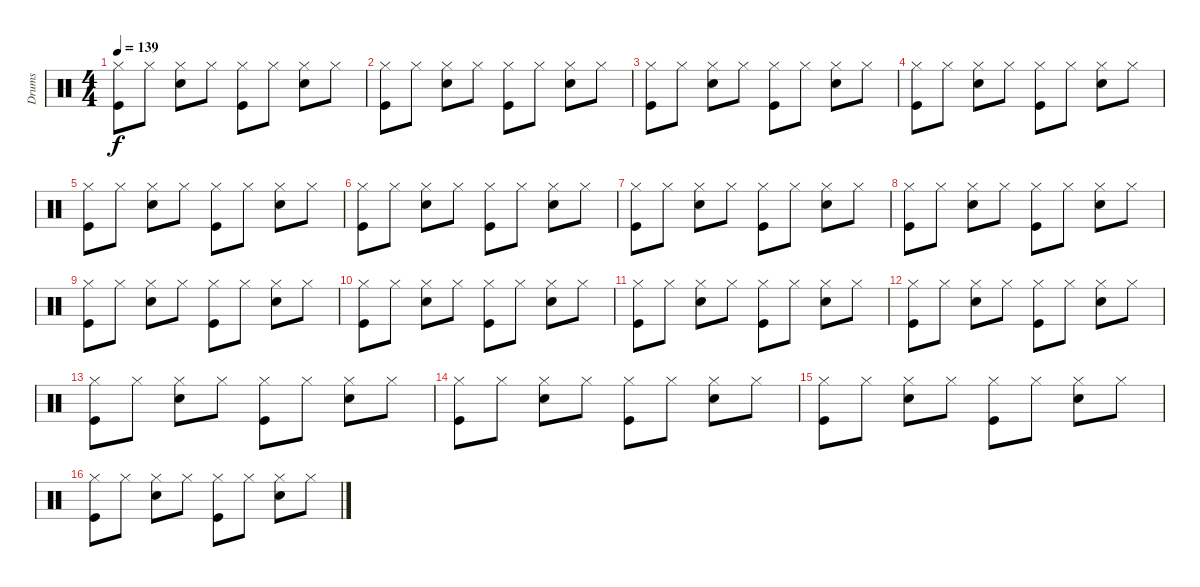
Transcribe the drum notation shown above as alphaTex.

\track ("Drums" "Drums") {instrument percussion}
\staff {score}
\articulation defaults
\ts (4 4)
\tempo 139
\clef neutral
\ks c
("Kick (hit)" "Hi-Hat (closed)").8{dy f} "Hi-Hat (closed)".8 ("Hi-Hat (closed)" "Snare (hit) 2").8 "Hi-Hat (closed)".8 ("Hi-Hat (closed)" "Kick (hit)").8 "Hi-Hat (closed)".8 ("Hi-Hat (closed)" "Snare (hit) 2").8 "Hi-Hat (closed)".8 |
("Kick (hit)" "Hi-Hat (closed)").8 "Hi-Hat (closed)".8 ("Hi-Hat (closed)" "Snare (hit) 2").8 "Hi-Hat (closed)".8 ("Hi-Hat (closed)" "Kick (hit)").8 "Hi-Hat (closed)".8 ("Hi-Hat (closed)" "Snare (hit) 2").8 "Hi-Hat (closed)".8 |
("Kick (hit)" "Hi-Hat (closed)").8 "Hi-Hat (closed)".8 ("Hi-Hat (closed)" "Snare (hit) 2").8 "Hi-Hat (closed)".8 ("Hi-Hat (closed)" "Kick (hit)").8 "Hi-Hat (closed)".8 ("Hi-Hat (closed)" "Snare (hit) 2").8 "Hi-Hat (closed)".8 |
("Kick (hit)" "Hi-Hat (closed)").8 "Hi-Hat (closed)".8 ("Hi-Hat (closed)" "Snare (hit) 2").8 "Hi-Hat (closed)".8 ("Hi-Hat (closed)" "Kick (hit)").8 "Hi-Hat (closed)".8 ("Hi-Hat (closed)" "Snare (hit) 2").8 "Hi-Hat (closed)".8 |
("Kick (hit)" "Hi-Hat (closed)").8 "Hi-Hat (closed)".8 ("Hi-Hat (closed)" "Snare (hit) 2").8 "Hi-Hat (closed)".8 ("Hi-Hat (closed)" "Kick (hit)").8 "Hi-Hat (closed)".8 ("Hi-Hat (closed)" "Snare (hit) 2").8 "Hi-Hat (closed)".8 |
("Hi-Hat (closed)" "Kick (hit)").8 "Hi-Hat (closed)".8 ("Hi-Hat (closed)" "Snare (hit) 2").8 "Hi-Hat (closed)".8 ("Hi-Hat (closed)" "Kick (hit)").8 "Hi-Hat (closed)".8 ("Hi-Hat (closed)" "Snare (hit) 2").8 "Hi-Hat (closed)".8 |
("Kick (hit)" "Hi-Hat (closed)").8 "Hi-Hat (closed)".8 ("Hi-Hat (closed)" "Snare (hit) 2").8 "Hi-Hat (closed)".8 ("Hi-Hat (closed)" "Kick (hit)").8 "Hi-Hat (closed)".8 ("Hi-Hat (closed)" "Snare (hit) 2").8 "Hi-Hat (closed)".8 |
("Kick (hit)" "Hi-Hat (closed)").8 "Hi-Hat (closed)".8 ("Hi-Hat (closed)" "Snare (hit) 2").8 "Hi-Hat (closed)".8 ("Hi-Hat (closed)" "Kick (hit)").8 "Hi-Hat (closed)".8 ("Hi-Hat (closed)" "Snare (hit) 2").8 "Hi-Hat (closed)".8 |
("Kick (hit)" "Hi-Hat (closed)").8 "Hi-Hat (closed)".8 ("Hi-Hat (closed)" "Snare (hit) 2").8 "Hi-Hat (closed)".8 ("Hi-Hat (closed)" "Kick (hit)").8 "Hi-Hat (closed)".8 ("Hi-Hat (closed)" "Snare (hit) 2").8 "Hi-Hat (closed)".8 |
("Kick (hit)" "Hi-Hat (closed)").8 "Hi-Hat (closed)".8 ("Hi-Hat (closed)" "Snare (hit) 2").8 "Hi-Hat (closed)".8 ("Hi-Hat (closed)" "Kick (hit)").8 "Hi-Hat (closed)".8 ("Hi-Hat (closed)" "Snare (hit) 2").8 "Hi-Hat (closed)".8 |
("Kick (hit)" "Hi-Hat (closed)").8 "Hi-Hat (closed)".8 ("Hi-Hat (closed)" "Snare (hit) 2").8 "Hi-Hat (closed)".8 ("Hi-Hat (closed)" "Kick (hit)").8 "Hi-Hat (closed)".8 ("Hi-Hat (closed)" "Snare (hit) 2").8 "Hi-Hat (closed)".8 |
("Kick (hit)" "Hi-Hat (closed)").8 "Hi-Hat (closed)".8 ("Hi-Hat (closed)" "Snare (hit) 2").8 "Hi-Hat (closed)".8 ("Hi-Hat (closed)" "Kick (hit)").8 "Hi-Hat (closed)".8 ("Hi-Hat (closed)" "Snare (hit) 2").8 "Hi-Hat (closed)".8 |
("Kick (hit)" "Hi-Hat (closed)").8 "Hi-Hat (closed)".8 ("Hi-Hat (closed)" "Snare (hit) 2").8 "Hi-Hat (closed)".8 ("Hi-Hat (closed)" "Kick (hit)").8 "Hi-Hat (closed)".8 ("Hi-Hat (closed)" "Snare (hit) 2").8 "Hi-Hat (closed)".8 |
("Kick (hit)" "Hi-Hat (closed)").8 "Hi-Hat (closed)".8 ("Hi-Hat (closed)" "Snare (hit) 2").8 "Hi-Hat (closed)".8 ("Hi-Hat (closed)" "Kick (hit)").8 "Hi-Hat (closed)".8 ("Hi-Hat (closed)" "Snare (hit) 2").8 "Hi-Hat (closed)".8 |
("Kick (hit)" "Hi-Hat (closed)").8 "Hi-Hat (closed)".8 ("Hi-Hat (closed)" "Snare (hit) 2").8 "Hi-Hat (closed)".8 ("Hi-Hat (closed)" "Kick (hit)").8 "Hi-Hat (closed)".8 ("Hi-Hat (closed)" "Snare (hit) 2").8 "Hi-Hat (closed)".8 |
("Hi-Hat (closed)" "Kick (hit)").8 "Hi-Hat (closed)".8 ("Hi-Hat (closed)" "Snare (hit) 2").8 "Hi-Hat (closed)".8 ("Hi-Hat (closed)" "Kick (hit)").8 "Hi-Hat (closed)".8 ("Hi-Hat (closed)" "Snare (hit) 2").8 "Hi-Hat (closed)".8
